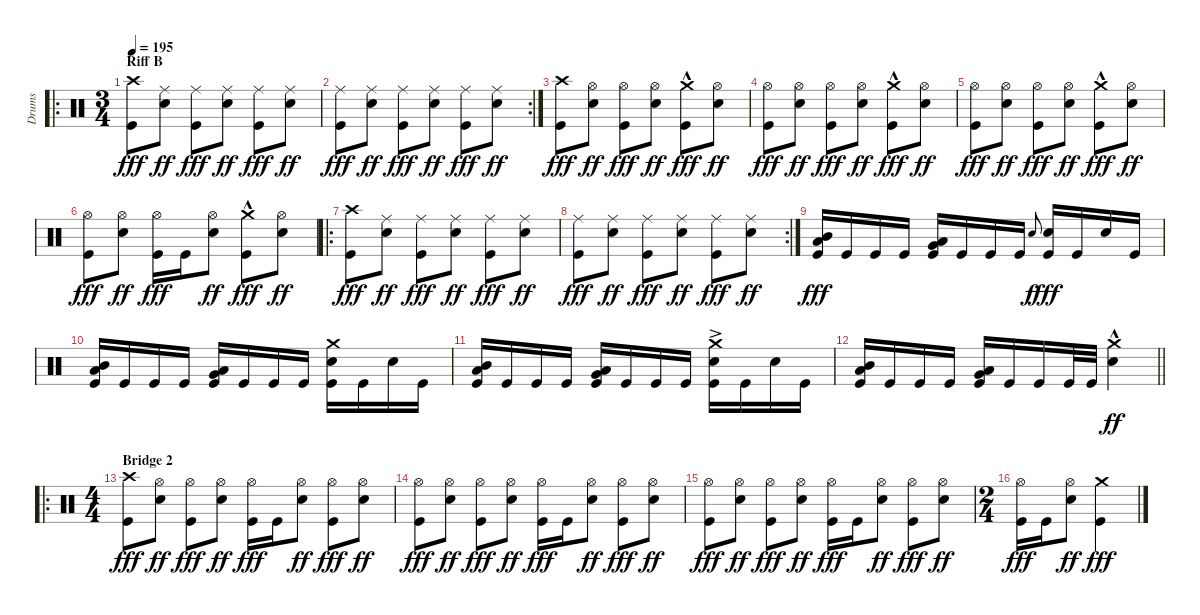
\track ("Drums" "Drums") {instrument percussion}
\staff {score}
\articulation defaults
\ro
\ts (3 4)
\section ("" "Riff B")
\tempo 195
\clef neutral
\ks c
("Crash high (hit)" "Kick (hit)").8{dy fff} ("Ride (middle)" "Electric Snare (hit)").8{dy ff} ("Ride (middle)" "Kick (hit)").8{dy fff} ("Ride (middle)" "Electric Snare (hit)").8{dy ff} ("Ride (middle)" "Kick (hit)").8{dy fff} ("Ride (middle)" "Electric Snare (hit)").8{dy ff} |
\rc 2
("Ride (middle)" "Kick (hit)").8{dy fff} ("Ride (middle)" "Electric Snare (hit)").8{dy ff} ("Ride (middle)" "Kick (hit)").8{dy fff} ("Ride (middle)" "Electric Snare (hit)").8{dy ff} ("Ride (middle)" "Kick (hit)").8{dy fff} ("Ride (middle)" "Electric Snare (hit)").8{dy ff} |
("Crash high (hit)" "Kick (hit)").8{dy fff} ("Hi-Hat (open)" "Electric Snare (hit)").8{dy ff} ("Hi-Hat (open)" "Kick (hit)").8{dy fff} ("Hi-Hat (open)" "Electric Snare (hit)").8{dy ff} ("Crash medium (hit)"{hac} "Kick (hit)").8{dy fff} ("Hi-Hat (open)" "Electric Snare (hit)").8{dy ff} |
("Hi-Hat (open)" "Kick (hit)").8{dy fff} ("Hi-Hat (open)" "Electric Snare (hit)").8{dy ff} ("Hi-Hat (open)" "Kick (hit)").8{dy fff} ("Hi-Hat (open)" "Electric Snare (hit)").8{dy ff} ("Crash medium (hit)"{hac} "Kick (hit)").8{dy fff} ("Hi-Hat (open)" "Electric Snare (hit)").8{dy ff} |
("Hi-Hat (open)" "Kick (hit)").8{dy fff} ("Hi-Hat (open)" "Electric Snare (hit)").8{dy ff} ("Hi-Hat (open)" "Kick (hit)").8{dy fff} ("Hi-Hat (open)" "Electric Snare (hit)").8{dy ff} ("Crash medium (hit)"{hac} "Kick (hit)").8{dy fff} ("Hi-Hat (open)" "Electric Snare (hit)").8{dy ff} |
("Hi-Hat (open)" "Kick (hit)").8{dy fff} ("Hi-Hat (open)" "Electric Snare (hit)").8{dy ff} ("Hi-Hat (open)" "Kick (hit)").16{dy fff} "Kick (hit)".16 ("Hi-Hat (open)" "Electric Snare (hit)").8{dy ff} ("Crash medium (hit)"{hac} "Kick (hit)").8{dy fff} ("Hi-Hat (open)" "Electric Snare (hit)").8{dy ff} |
\ro
("Crash high (hit)" "Kick (hit)").8{dy fff} ("Ride (middle)" "Electric Snare (hit)").8{dy ff} ("Ride (middle)" "Kick (hit)").8{dy fff} ("Ride (middle)" "Electric Snare (hit)").8{dy ff} ("Ride (middle)" "Kick (hit)").8{dy fff} ("Ride (middle)" "Electric Snare (hit)").8{dy ff} |
\rc 2
("Ride (middle)" "Kick (hit)").8{dy fff} ("Ride (middle)" "Electric Snare (hit)").8{dy ff} ("Ride (middle)" "Kick (hit)").8{dy fff} ("Ride (middle)" "Electric Snare (hit)").8{dy ff} ("Ride (middle)" "Kick (hit)").8{dy fff} ("Ride (middle)" "Electric Snare (hit)").8{dy ff} |
("Mid Tom (hit)" "Low Tom (hit)" "Kick (hit)").16{dy fff} "Kick (hit)".16 "Kick (hit)".16 "Kick (hit)".16 ("Low Tom (hit)" "Very Low Tom (hit)" "Kick (hit)").16 "Kick (hit)".16 "Kick (hit)".16 "Kick (hit)".16 "Electric Snare (hit)".8{gr onbeat dy f} ("Electric Snare (hit)" "Kick (hit)").16{dy fff} "Kick (hit)".16 "Snare (hit)".16 "Kick (hit)".16 |
("Mid Tom (hit)" "Low Tom (hit)" "Kick (hit)").16 "Kick (hit)".16 "Kick (hit)".16 "Kick (hit)".16 ("Low Tom (hit)" "Very Low Tom (hit)" "Kick (hit)").16 "Kick (hit)".16 "Kick (hit)".16 "Kick (hit)".16 ("Crash medium (hit)" "Electric Snare (hit)" "Kick (hit)").16 "Kick (hit)".16 "Snare (hit)".16 "Kick (hit)".16 |
("Mid Tom (hit)" "Low Tom (hit)" "Kick (hit)").16 "Kick (hit)".16 "Kick (hit)".16 "Kick (hit)".16 ("Low Tom (hit)" "Very Low Tom (hit)" "Kick (hit)").16 "Kick (hit)".16 "Kick (hit)".16 "Kick (hit)".16 ("Crash medium (hit)"{ac} "Electric Snare (hit)" "Kick (hit)").16 "Kick (hit)".16 "Snare (hit)".16 "Kick (hit)".16 |
\barLineRight lightlight
("Mid Tom (hit)" "Low Tom (hit)" "Kick (hit)").16 "Kick (hit)".16 "Kick (hit)".16 "Kick (hit)".16 ("Low Tom (hit)" "Very Low Tom (hit)" "Kick (hit)").16 "Kick (hit)".16 "Kick (hit)".16 "Kick (hit)".32 "Kick (hit)".32 ("Crash medium (hit)"{hac} "Electric Snare (hit)").4{dy ff} |
\ro
\ts (4 4)
\section ("" "Bridge 2")
("Crash high (hit)" "Kick (hit)").8{dy fff} ("Hi-Hat (open)" "Electric Snare (hit)").8{dy ff} ("Hi-Hat (open)" "Kick (hit)").8{dy fff} ("Hi-Hat (open)" "Electric Snare (hit)").8{dy ff} ("Hi-Hat (open)" "Kick (hit)").16{dy fff} "Kick (hit)".16 ("Hi-Hat (open)" "Electric Snare (hit)").8{dy ff} ("Hi-Hat (open)" "Kick (hit)").8{dy fff} ("Hi-Hat (open)" "Electric Snare (hit)").8{dy ff} |
("Hi-Hat (open)" "Kick (hit)").8{dy fff} ("Hi-Hat (open)" "Electric Snare (hit)").8{dy ff} ("Hi-Hat (open)" "Kick (hit)").8{dy fff} ("Hi-Hat (open)" "Electric Snare (hit)").8{dy ff} ("Hi-Hat (open)" "Kick (hit)").16{dy fff} "Kick (hit)".16 ("Hi-Hat (open)" "Electric Snare (hit)").8{dy ff} ("Hi-Hat (open)" "Kick (hit)").8{dy fff} ("Hi-Hat (open)" "Electric Snare (hit)").8{dy ff} |
("Hi-Hat (open)" "Kick (hit)").8{dy fff} ("Hi-Hat (open)" "Electric Snare (hit)").8{dy ff} ("Hi-Hat (open)" "Kick (hit)").8{dy fff} ("Hi-Hat (open)" "Electric Snare (hit)").8{dy ff} ("Hi-Hat (open)" "Kick (hit)").16{dy fff} "Kick (hit)".16 ("Hi-Hat (open)" "Electric Snare (hit)").8{dy ff} ("Hi-Hat (open)" "Kick (hit)").8{dy fff} ("Hi-Hat (open)" "Electric Snare (hit)").8{dy ff} |
\ts (2 4)
("Hi-Hat (open)" "Kick (hit)").16{dy fff} "Kick (hit)".16 ("Hi-Hat (open)" "Electric Snare (hit)").8{dy ff} ("Crash medium (hit)" "Kick (hit)").4{dy fff}
